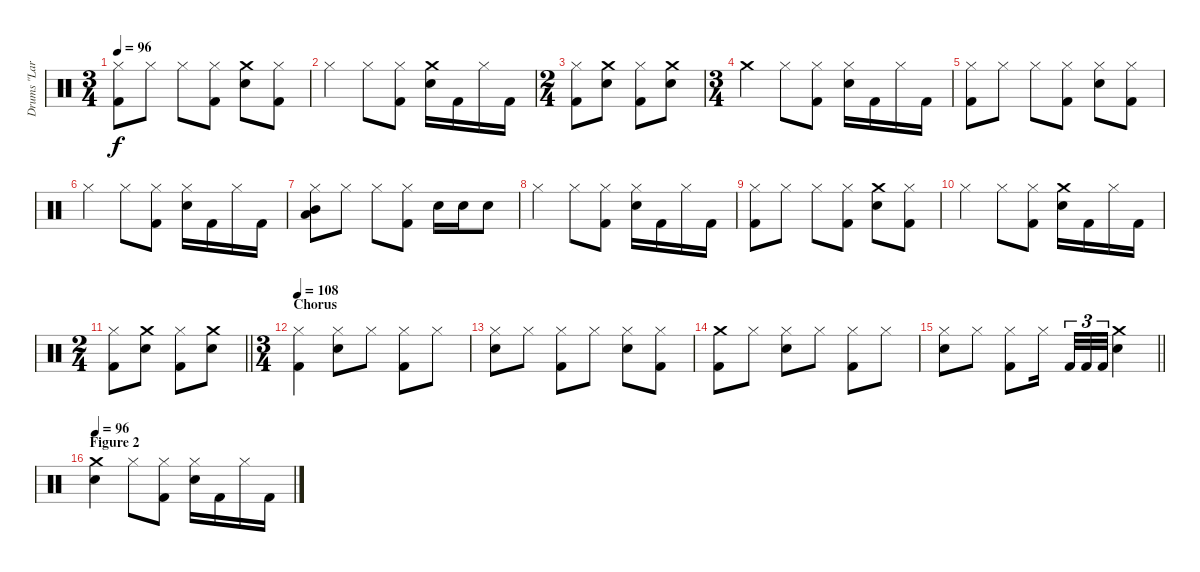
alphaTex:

\track ("Drums \"Lars Ulrich\"" "Drums \"Lar") {instrument percussion}
\staff {score}
\articulation defaults
\ts (3 4)
\tempo 96
\clef neutral
\ks c
("Hi-Hat (closed)" "Kick (hit) 2").8{dy f} "Hi-Hat (closed)".8 "Hi-Hat (closed)".8 ("Hi-Hat (closed)" "Kick (hit) 2").8 ("Crash medium (hit)" "Electric Snare (hit)").8 ("Hi-Hat (closed)" "Kick (hit) 2").8 |
"Hi-Hat (closed)".4 "Hi-Hat (closed)".8 ("Hi-Hat (closed)" "Kick (hit) 2").8 ("Crash medium (hit)" "Electric Snare (hit)").16 "Kick (hit) 2".16 "Hi-Hat (closed)".16 "Kick (hit) 2".16 |
\ts (2 4)
("Hi-Hat (closed)" "Kick (hit) 2").8 ("Crash medium (hit)" "Electric Snare (hit)").8 ("Hi-Hat (closed)" "Kick (hit) 2").8 ("Crash medium (hit)" "Electric Snare (hit)").8 |
\ts (3 4)
"Crash medium (hit)".4 "Hi-Hat (closed)".8 ("Hi-Hat (closed)" "Kick (hit) 2").8 ("Hi-Hat (closed)" "Electric Snare (hit)").16 "Kick (hit) 2".16 "Hi-Hat (closed)".16 "Kick (hit) 2".16 |
("Hi-Hat (closed)" "Kick (hit) 2").8 "Hi-Hat (closed)".8 "Hi-Hat (closed)".8 ("Hi-Hat (closed)" "Kick (hit) 2").8 ("Hi-Hat (closed)" "Electric Snare (hit)").8 ("Hi-Hat (closed)" "Kick (hit) 2").8 |
"Hi-Hat (closed)".4 "Hi-Hat (closed)".8 ("Hi-Hat (closed)" "Kick (hit) 2").8 ("Hi-Hat (closed)" "Electric Snare (hit)").16 "Kick (hit) 2".16 "Hi-Hat (closed)".16 "Kick (hit) 2".16 |
("Mid Tom (hit)" "Low Tom (hit)" "Hi-Hat (closed)").8 "Hi-Hat (closed)".8 "Hi-Hat (closed)".8 ("Hi-Hat (closed)" "Kick (hit) 2").8 "Electric Snare (hit)".16 "Electric Snare (hit)".16 "Electric Snare (hit)".8 |
"Hi-Hat (closed)".4 "Hi-Hat (closed)".8 ("Hi-Hat (closed)" "Kick (hit) 2").8 ("Hi-Hat (closed)" "Electric Snare (hit)").16 "Kick (hit) 2".16 "Hi-Hat (closed)".16 "Kick (hit) 2".16 |
("Hi-Hat (closed)" "Kick (hit) 2").8 "Hi-Hat (closed)".8 "Hi-Hat (closed)".8 ("Hi-Hat (closed)" "Kick (hit) 2").8 ("Crash medium (hit)" "Electric Snare (hit)").8 ("Hi-Hat (closed)" "Kick (hit) 2").8 |
"Hi-Hat (closed)".4 "Hi-Hat (closed)".8 ("Hi-Hat (closed)" "Kick (hit) 2").8 ("Crash medium (hit)" "Electric Snare (hit)").16 "Kick (hit) 2".16 "Hi-Hat (closed)".16 "Kick (hit) 2".16 |
\ts (2 4)
\barLineRight lightlight
("Hi-Hat (closed)" "Kick (hit) 2").8 ("Crash medium (hit)" "Electric Snare (hit)").8 ("Hi-Hat (closed)" "Kick (hit) 2").8 ("Crash medium (hit)" "Electric Snare (hit)").8 |
\ts (3 4)
\section ("" "Chorus")
\tempo 108
("Hi-Hat (closed)" "Kick (hit) 2").4 ("Hi-Hat (closed)" "Electric Snare (hit)").8 "Hi-Hat (closed)".8 ("Hi-Hat (closed)" "Kick (hit) 2").8 "Hi-Hat (closed)".8 |
("Hi-Hat (closed)" "Electric Snare (hit)").8 "Hi-Hat (closed)".8 ("Hi-Hat (closed)" "Kick (hit) 2").8 "Hi-Hat (closed)".8 ("Hi-Hat (closed)" "Electric Snare (hit)").8 ("Hi-Hat (closed)" "Kick (hit) 2").8 |
("Crash medium (hit)" "Kick (hit) 2").8 "Hi-Hat (closed)".8 ("Hi-Hat (closed)" "Electric Snare (hit)").8 "Hi-Hat (closed)".8 ("Hi-Hat (closed)" "Kick (hit) 2").8 "Hi-Hat (closed)".8 |
\barLineRight lightlight
("Hi-Hat (closed)" "Electric Snare (hit)").8 "Hi-Hat (closed)".8 ("Hi-Hat (closed)" "Kick (hit) 2").8 "Hi-Hat (closed)".16{beam splitsecondary} "Kick (hit) 2".32{tu (3 2)} "Kick (hit) 2".32{tu (3 2)} "Kick (hit) 2".32{tu (3 2)} ("Crash medium (hit)" "Electric Snare (hit)").4 |
\section ("" "Figure 2")
\tempo 96
("Crash medium (hit)" "Electric Snare (hit)").4 "Hi-Hat (closed)".8 ("Hi-Hat (closed)" "Kick (hit) 2").8 ("Hi-Hat (closed)" "Electric Snare (hit)").16 "Kick (hit) 2".16 "Hi-Hat (closed)".16 "Kick (hit) 2".16
